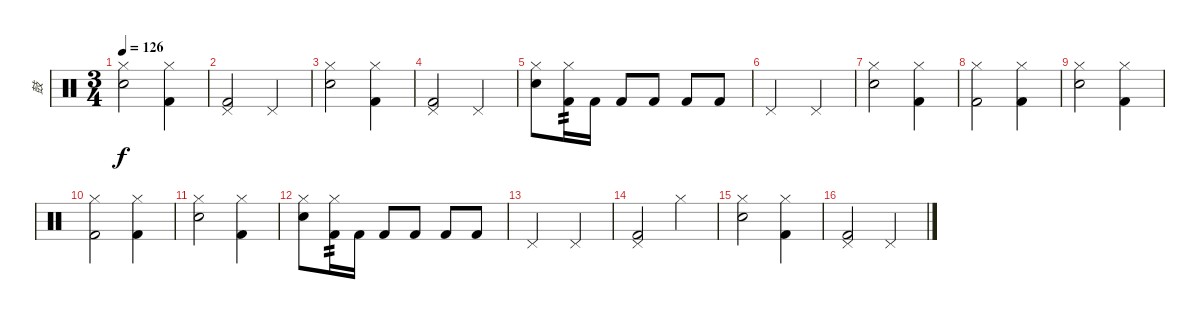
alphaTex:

\track ("鼓" "鼓") {instrument percussion}
\staff {score}
\articulation defaults
\ts (3 4)
\tempo 126
\clef neutral
\ks c
("Snare (hit) 2" "Hi-Hat (closed)").2{dy f} ("Kick (hit) 2" "Hi-Hat (closed)").4 |
("Kick (hit) 2" "Pedal Hi-Hat (hit)").2 "Pedal Hi-Hat (hit)".4 |
("Snare (hit) 2" "Hi-Hat (closed)").2 ("Kick (hit) 2" "Hi-Hat (closed)").4 |
("Kick (hit) 2" "Pedal Hi-Hat (hit)").2 "Pedal Hi-Hat (hit)".4 |
("Snare (hit) 2" "Hi-Hat (closed)").8 ("Kick (hit) 2" "Hi-Hat (closed)").16{tp 2} "Kick (hit) 2".16 "Kick (hit) 2".8 "Kick (hit) 2".8 "Kick (hit) 2".8 "Kick (hit) 2".8 |
"Pedal Hi-Hat (hit)".2 "Pedal Hi-Hat (hit)".4 |
("Snare (hit) 2" "Hi-Hat (closed)").2 ("Kick (hit) 2" "Hi-Hat (closed)").4 |
("Kick (hit) 2" "Hi-Hat (closed)").2 ("Kick (hit) 2" "Hi-Hat (closed)").4 |
("Snare (hit) 2" "Hi-Hat (closed)").2 ("Kick (hit) 2" "Hi-Hat (closed)").4 |
("Kick (hit) 2" "Hi-Hat (closed)").2 ("Kick (hit) 2" "Hi-Hat (closed)").4 |
("Snare (hit) 2" "Hi-Hat (closed)").2 ("Kick (hit) 2" "Hi-Hat (closed)").4 |
("Snare (hit) 2" "Hi-Hat (closed)").8 ("Kick (hit) 2" "Hi-Hat (closed)").16{tp 2} "Kick (hit) 2".16 "Kick (hit) 2".8 "Kick (hit) 2".8 "Kick (hit) 2".8 "Kick (hit) 2".8 |
"Pedal Hi-Hat (hit)".2 "Pedal Hi-Hat (hit)".4 |
("Kick (hit) 2" "Pedal Hi-Hat (hit)").2 "Hi-Hat (closed)".4 |
("Snare (hit) 2" "Hi-Hat (closed)").2 ("Kick (hit) 2" "Hi-Hat (closed)").4 |
("Kick (hit) 2" "Pedal Hi-Hat (hit)").2 "Pedal Hi-Hat (hit)".4
